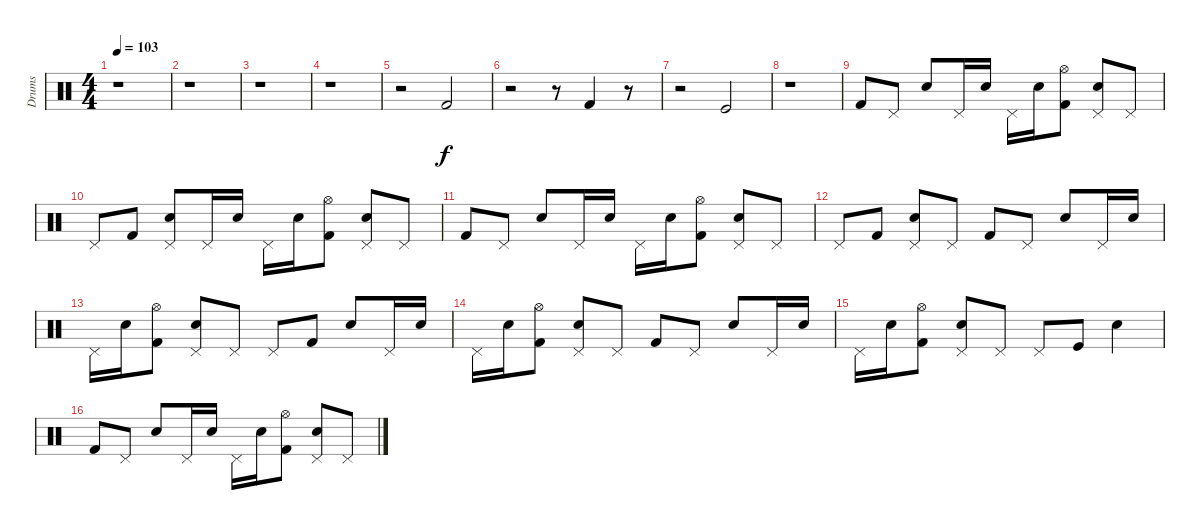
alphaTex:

\track ("Drums" "Drums") {instrument percussion}
\staff {score}
\articulation defaults
\ts (4 4)
\tempo 103
\clef neutral
\ks c
r.1{dy f} |
r.1 |
r.1 |
r.1 |
r.2 "Kick (hit) 2".2 |
r.2 r.8 "Kick (hit) 2".4 r.8 |
r.2 "Kick (hit)".2 |
r.1 |
"Kick (hit) 2".8 "Pedal Hi-Hat (hit)".8 "Electric Snare (hit)".8 "Pedal Hi-Hat (hit)".16 "Electric Snare (hit)".16 "Pedal Hi-Hat (hit)".16 "Electric Snare (hit)".16 ("Hi-Hat (open)" "Kick (hit) 2").8 ("Pedal Hi-Hat (hit)" "Electric Snare (hit)").8 "Pedal Hi-Hat (hit)".8 |
"Pedal Hi-Hat (hit)".8 "Kick (hit) 2".8 ("Pedal Hi-Hat (hit)" "Electric Snare (hit)").8 "Pedal Hi-Hat (hit)".16 "Electric Snare (hit)".16 "Pedal Hi-Hat (hit)".16 "Electric Snare (hit)".16 ("Hi-Hat (open)" "Kick (hit) 2").8 ("Pedal Hi-Hat (hit)" "Electric Snare (hit)").8 "Pedal Hi-Hat (hit)".8 |
"Kick (hit) 2".8 "Pedal Hi-Hat (hit)".8 "Electric Snare (hit)".8 "Pedal Hi-Hat (hit)".16 "Electric Snare (hit)".16 "Pedal Hi-Hat (hit)".16 "Electric Snare (hit)".16 ("Hi-Hat (open)" "Kick (hit) 2").8 ("Pedal Hi-Hat (hit)" "Electric Snare (hit)").8 "Pedal Hi-Hat (hit)".8 |
"Pedal Hi-Hat (hit)".8 "Kick (hit) 2".8 ("Pedal Hi-Hat (hit)" "Electric Snare (hit)").8 "Pedal Hi-Hat (hit)".8 "Kick (hit) 2".8 "Pedal Hi-Hat (hit)".8 "Electric Snare (hit)".8 "Pedal Hi-Hat (hit)".16 "Electric Snare (hit)".16 |
"Pedal Hi-Hat (hit)".16 "Electric Snare (hit)".16 ("Hi-Hat (open)" "Kick (hit) 2").8 ("Pedal Hi-Hat (hit)" "Electric Snare (hit)").8 "Pedal Hi-Hat (hit)".8 "Pedal Hi-Hat (hit)".8 "Kick (hit) 2".8 "Electric Snare (hit)".8 "Pedal Hi-Hat (hit)".16 "Electric Snare (hit)".16 |
"Pedal Hi-Hat (hit)".16 "Electric Snare (hit)".16 ("Hi-Hat (open)" "Kick (hit) 2").8 ("Pedal Hi-Hat (hit)" "Electric Snare (hit)").8 "Pedal Hi-Hat (hit)".8 "Kick (hit) 2".8 "Pedal Hi-Hat (hit)".8 "Electric Snare (hit)".8 "Pedal Hi-Hat (hit)".16 "Electric Snare (hit)".16 |
"Pedal Hi-Hat (hit)".16 "Electric Snare (hit)".16 ("Hi-Hat (open)" "Kick (hit) 2").8 ("Pedal Hi-Hat (hit)" "Electric Snare (hit)").8 "Pedal Hi-Hat (hit)".8 "Pedal Hi-Hat (hit)".8 "Kick (hit)".8 "Electric Snare (hit)".4 |
"Kick (hit) 2".8 "Pedal Hi-Hat (hit)".8 "Electric Snare (hit)".8 "Pedal Hi-Hat (hit)".16 "Electric Snare (hit)".16 "Pedal Hi-Hat (hit)".16 "Electric Snare (hit)".16 ("Hi-Hat (open)" "Kick (hit) 2").8 ("Pedal Hi-Hat (hit)" "Electric Snare (hit)").8 "Pedal Hi-Hat (hit)".8
